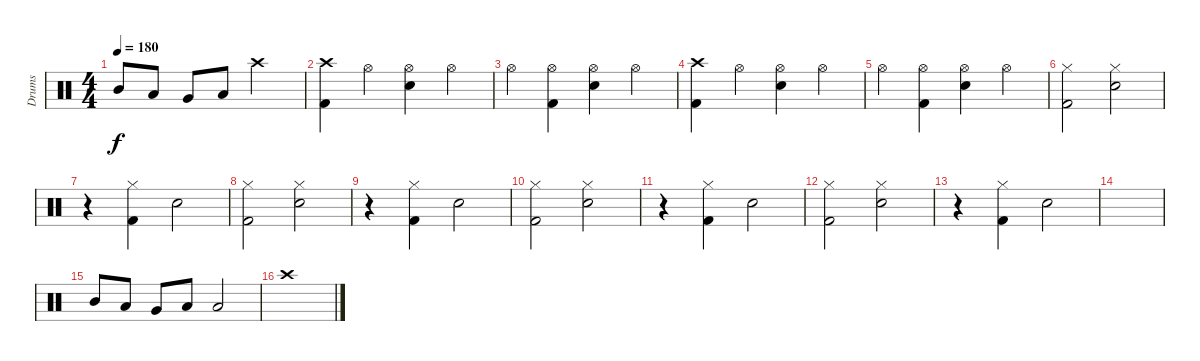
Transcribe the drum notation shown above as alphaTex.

\track ("Drums" "Drums") {instrument percussion}
\staff {score}
\articulation defaults
\ts (4 4)
\tempo 180
\clef neutral
\ks c "Mid Tom (hit)".8{dy f} "Low Tom (hit)".8 "Very Low Tom (hit)".8 "Low Floor Tom (hit)".8 "Crash high (hit)".2
|
("Kick (hit) 2" "Crash high (hit)").4 "Hi-Hat (open)".4 ("Hi-Hat (open)" "Electric Snare (hit)").4 "Hi-Hat (open)".4 |
"Hi-Hat (open)".4 ("Hi-Hat (open)" "Kick (hit) 2").4 ("Hi-Hat (open)" "Electric Snare (hit)").4 "Hi-Hat (open)".4 |
("Kick (hit) 2" "Crash high (hit)").4 "Hi-Hat (open)".4 ("Hi-Hat (open)" "Electric Snare (hit)").4 "Hi-Hat (open)".4 |
"Hi-Hat (open)".4 ("Hi-Hat (open)" "Kick (hit) 2").4 ("Hi-Hat (open)" "Electric Snare (hit)").4 "Hi-Hat (open)".4 |
("Hi-Hat (closed)" "Kick (hit) 2").2 ("Hi-Hat (closed)" "Electric Snare (hit)").2 |
r.4 ("Kick (hit) 2" "Hi-Hat (closed)").4 "Electric Snare (hit)".2 |
("Hi-Hat (closed)" "Kick (hit) 2").2 ("Hi-Hat (closed)" "Electric Snare (hit)").2 |
r.4 ("Kick (hit) 2" "Hi-Hat (closed)").4 "Electric Snare (hit)".2 |
("Hi-Hat (closed)" "Kick (hit) 2").2 ("Hi-Hat (closed)" "Electric Snare (hit)").2 |
r.4 ("Kick (hit) 2" "Hi-Hat (closed)").4 "Electric Snare (hit)".2 |
("Hi-Hat (closed)" "Kick (hit) 2").2 ("Hi-Hat (closed)" "Electric Snare (hit)").2 |
r.4 ("Kick (hit) 2" "Hi-Hat (closed)").4 "Electric Snare (hit)".2 |
|
"Mid Tom (hit)".8 "Low Tom (hit)".8 "Very Low Tom (hit)".8 "Low Floor Tom (hit)".8 "Low Floor Tom (hit)".2 |
"Crash high (hit)".1
